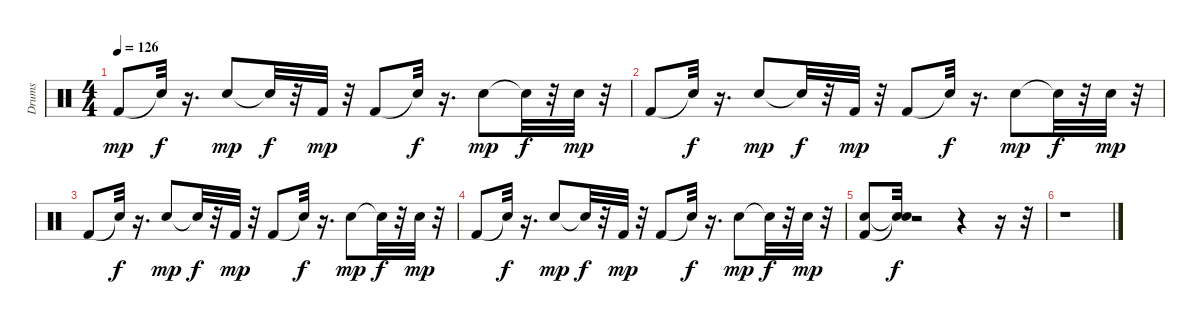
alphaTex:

\track ("Drums" "Drums") {instrument percussion}
\staff {score}
\articulation defaults
\ts (4 4)
\tempo 126
\clef neutral
\ks c "Kick (hit) 2".8{dy mp} "Snare (hit)"{t}.32{dy f}
r.16{d} "Electric Snare (hit)".8{dy mp} "Snare (hit)"{t}.32{dy f} r.32 "Kick (hit) 2".32{dy mp} r.32 "Kick (hit) 2".8 "Snare (hit)"{t}.32{dy f} r.16{d} "Electric Snare (hit)".8{dy mp} "Snare (hit)"{t}.32{dy f} r.32 "Electric Snare (hit)".32{dy mp} r.32 |
"Kick (hit) 2".8 "Snare (hit)"{t}.32{dy f} r.16{d} "Electric Snare (hit)".8{dy mp} "Snare (hit)"{t}.32{dy f} r.32 "Kick (hit) 2".32{dy mp} r.32 "Kick (hit) 2".8 "Snare (hit)"{t}.32{dy f} r.16{d} "Electric Snare (hit)".8{dy mp} "Snare (hit)"{t}.32{dy f} r.32 "Electric Snare (hit)".32{dy mp} r.32 |
"Kick (hit) 2".8 "Snare (hit)"{t}.32{dy f} r.16{d} "Electric Snare (hit)".8{dy mp} "Snare (hit)"{t}.32{dy f} r.32 "Kick (hit) 2".32{dy mp} r.32 "Kick (hit) 2".8 "Snare (hit)"{t}.32{dy f} r.16{d} "Electric Snare (hit)".8{dy mp} "Snare (hit)"{t}.32{dy f} r.32 "Electric Snare (hit)".32{dy mp} r.32 |
"Kick (hit) 2".8 "Snare (hit)"{t}.32{dy f} r.16{d} "Electric Snare (hit)".8{dy mp} "Snare (hit)"{t}.32{dy f} r.32 "Kick (hit) 2".32{dy mp} r.32 "Kick (hit) 2".8 "Snare (hit)"{t}.32{dy f} r.16{d} "Electric Snare (hit)".8{dy mp} "Snare (hit)"{t}.32{dy f} r.32 "Electric Snare (hit)".32{dy mp} r.32 |
("Kick (hit) 2" "Electric Snare (hit)").8 ("Snare (hit)"{t} "Snare (hit)"{t}).32{dy f} r.2 r.4 r.16 r.32 |
r.1
